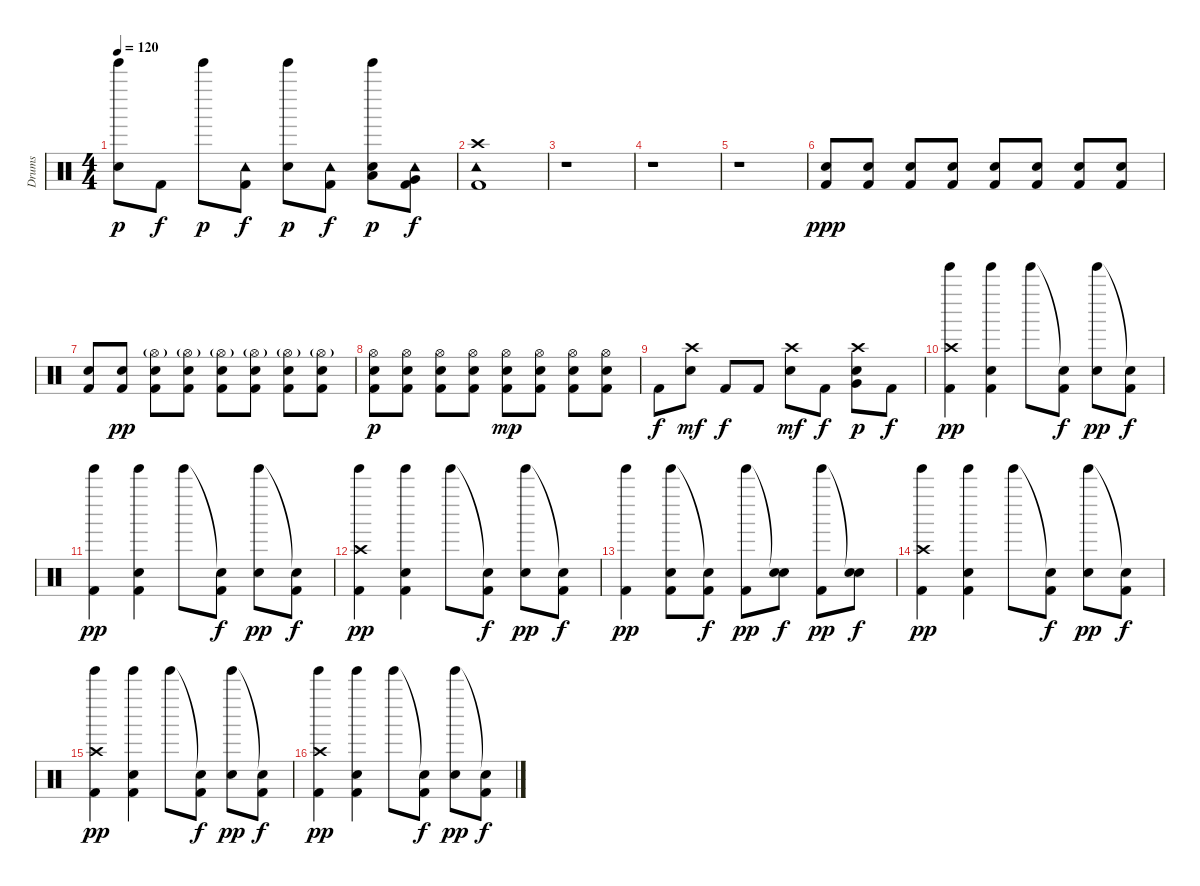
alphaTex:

\track ("Drums" "Drums") {instrument percussion}
\staff {score}
\articulation defaults
\ts (4 4)
\tempo 120
\clef neutral
\ks c
("Tinkle Bell (hit)" "Electric Snare (hit)").8{dy p} "Kick (hit) 2".8{dy f} "Tinkle Bell (hit)".8{dy p} ("Tambourine (hit)" "Kick (hit) 2").8{dy f} ("Tinkle Bell (hit)" "Electric Snare (hit)").8{dy p} ("Tambourine (hit)" "Kick (hit) 2").8{dy f} ("Tinkle Bell (hit)" "Electric Snare (hit)" "Low Tom (hit)").8{dy p} ("Very Low Tom (hit)" "Tambourine (hit)" "Kick (hit) 2").8{dy f} |
("Crash high (hit)" "Tambourine (hit)" "Kick (hit) 2").1 |
r.1 |
r.1 |
r.1 |
("Electric Snare (hit)" "Kick (hit) 2").8{dy ppp} ("Electric Snare (hit)" "Kick (hit) 2").8 ("Electric Snare (hit)" "Kick (hit) 2").8 ("Electric Snare (hit)" "Kick (hit) 2").8 ("Electric Snare (hit)" "Kick (hit) 2").8 ("Electric Snare (hit)" "Kick (hit) 2").8 ("Electric Snare (hit)" "Kick (hit) 2").8 ("Electric Snare (hit)" "Kick (hit) 2").8 |
("Electric Snare (hit)" "Kick (hit) 2").8 ("Electric Snare (hit)" "Kick (hit) 2").8{dy pp} ("Hi-Hat (open)"{g} "Electric Snare (hit)" "Kick (hit) 2").8 ("Hi-Hat (open)"{g} "Electric Snare (hit)" "Kick (hit) 2").8 ("Hi-Hat (open)"{g} "Electric Snare (hit)" "Kick (hit) 2").8 ("Hi-Hat (open)"{g} "Electric Snare (hit)" "Kick (hit) 2").8 ("Hi-Hat (open)"{g} "Electric Snare (hit)" "Kick (hit) 2").8 ("Hi-Hat (open)"{g} "Electric Snare (hit)" "Kick (hit) 2").8 |
("Hi-Hat (open)" "Electric Snare (hit)" "Kick (hit) 2").8{dy p} ("Hi-Hat (open)" "Electric Snare (hit)" "Kick (hit) 2").8 ("Hi-Hat (open)" "Electric Snare (hit)" "Kick (hit) 2").8 ("Hi-Hat (open)" "Electric Snare (hit)" "Kick (hit) 2").8 ("Hi-Hat (open)" "Electric Snare (hit)" "Kick (hit) 2").8{dy mp} ("Hi-Hat (open)" "Electric Snare (hit)" "Kick (hit) 2").8 ("Hi-Hat (open)" "Electric Snare (hit)" "Kick (hit) 2").8 ("Hi-Hat (open)" "Electric Snare (hit)" "Kick (hit) 2").8 |
"Kick (hit) 2".8{dy f} ("Crash high (hit)" "Electric Snare (hit)").8{dy mf} "Kick (hit) 2".8{dy f} "Kick (hit) 2".8 ("Crash high (hit)" "Electric Snare (hit)").8{dy mf} "Kick (hit) 2".8{dy f} ("Crash high (hit)" "Electric Snare (hit)" "Very Low Tom (hit)").8{dy p} "Kick (hit) 2".8{dy f} |
("Crash high (hit)" "Tinkle Bell (hit)" "Kick (hit) 2").4{dy pp} ("Tinkle Bell (hit)" "Electric Snare (hit)" "Kick (hit) 2").4 "Tinkle Bell (hit)".8 ("Snare (hit)"{t} "Kick (hit) 2").8{dy f} ("Tinkle Bell (hit)" "Electric Snare (hit)").8{dy pp} ("Snare (hit)"{t} "Kick (hit) 2").8{dy f} |
("Tinkle Bell (hit)" "Kick (hit) 2").4{dy pp} ("Tinkle Bell (hit)" "Electric Snare (hit)" "Kick (hit) 2").4 "Tinkle Bell (hit)".8 ("Snare (hit)"{t} "Kick (hit) 2").8{dy f} ("Tinkle Bell (hit)" "Electric Snare (hit)").8{dy pp} ("Snare (hit)"{t} "Kick (hit) 2").8{dy f} |
("Crash high (hit)" "Tinkle Bell (hit)" "Kick (hit) 2").4{dy pp} ("Tinkle Bell (hit)" "Electric Snare (hit)" "Kick (hit) 2").4 "Tinkle Bell (hit)".8 ("Snare (hit)"{t} "Kick (hit) 2").8{dy f} ("Tinkle Bell (hit)" "Electric Snare (hit)").8{dy pp} ("Snare (hit)"{t} "Kick (hit) 2").8{dy f} |
("Tinkle Bell (hit)" "Kick (hit) 2").4{dy pp} ("Tinkle Bell (hit)" "Electric Snare (hit)" "Kick (hit) 2").8 ("Snare (hit)"{t} "Kick (hit) 2").8{dy f} ("Tinkle Bell (hit)" "Kick (hit) 2").8{dy pp} ("Snare (hit)"{t} "Electric Snare (hit)").8{dy f} ("Tinkle Bell (hit)" "Kick (hit) 2").8{dy pp} ("Snare (hit)"{t} "Electric Snare (hit)").8{dy f} |
("Crash high (hit)" "Tinkle Bell (hit)" "Kick (hit) 2").4{dy pp} ("Tinkle Bell (hit)" "Electric Snare (hit)" "Kick (hit) 2").4 "Tinkle Bell (hit)".8 ("Snare (hit)"{t} "Kick (hit) 2").8{dy f} ("Tinkle Bell (hit)" "Electric Snare (hit)").8{dy pp} ("Snare (hit)"{t} "Kick (hit) 2").8{dy f} |
("Crash high (hit)" "Tinkle Bell (hit)" "Kick (hit) 2").4{dy pp} ("Tinkle Bell (hit)" "Electric Snare (hit)" "Kick (hit) 2").4 "Tinkle Bell (hit)".8 ("Snare (hit)"{t} "Kick (hit) 2").8{dy f} ("Tinkle Bell (hit)" "Electric Snare (hit)").8{dy pp} ("Snare (hit)"{t} "Kick (hit) 2").8{dy f} |
("Crash high (hit)" "Tinkle Bell (hit)" "Kick (hit) 2").4{dy pp} ("Tinkle Bell (hit)" "Electric Snare (hit)" "Kick (hit) 2").4 "Tinkle Bell (hit)".8 ("Snare (hit)"{t} "Kick (hit) 2").8{dy f} ("Tinkle Bell (hit)" "Electric Snare (hit)").8{dy pp} ("Snare (hit)"{t} "Kick (hit) 2").8{dy f}
